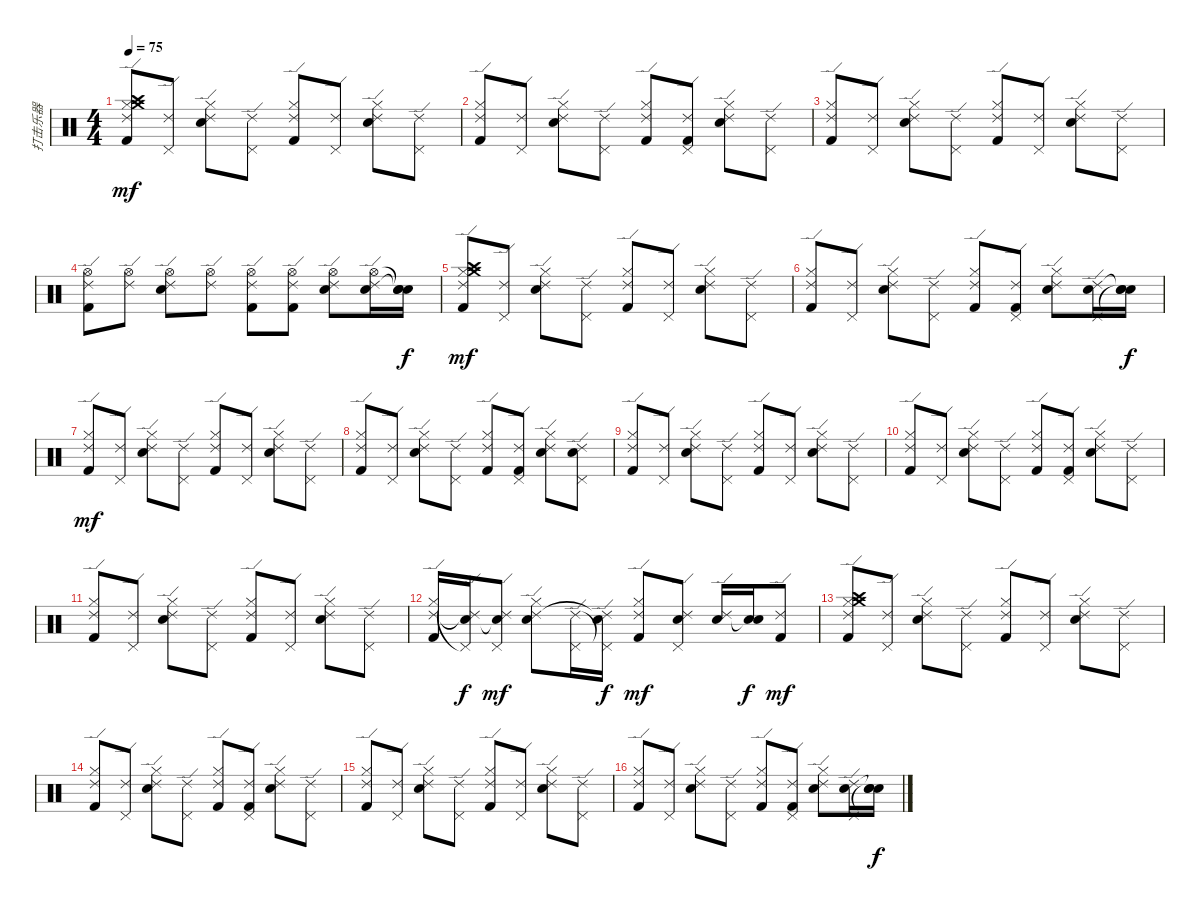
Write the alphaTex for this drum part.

\track ("打击乐器" "打击乐器") {instrument percussion}
\staff {score}
\articulation defaults
\ts (4 4)
\tempo 75
\clef neutral
\ks c
("Kick (hit) 2" "Hi-Hat (closed)" "Crash medium (hit)" "Crash high (hit)" "Ride (edge) 2").8{dy mf} ("Pedal Hi-Hat (hit)" "Ride (edge) 2").8 ("Electric Snare (hit)" "Hi-Hat (closed)" "Ride (edge) 2").8 ("Pedal Hi-Hat (hit)" "Ride (edge) 2").8 ("Kick (hit) 2" "Hi-Hat (closed)" "Ride (edge) 2").8 ("Pedal Hi-Hat (hit)" "Ride (edge) 2").8 ("Electric Snare (hit)" "Hi-Hat (closed)" "Ride (edge) 2").8 ("Pedal Hi-Hat (hit)" "Ride (edge) 2").8 |
("Kick (hit) 2" "Hi-Hat (closed)" "Ride (edge) 2").8 ("Pedal Hi-Hat (hit)" "Ride (edge) 2").8 ("Electric Snare (hit)" "Hi-Hat (closed)" "Ride (edge) 2").8 ("Pedal Hi-Hat (hit)" "Ride (edge) 2").8 ("Kick (hit) 2" "Hi-Hat (closed)" "Ride (edge) 2").8 ("Kick (hit) 2" "Pedal Hi-Hat (hit)" "Ride (edge) 2").8 ("Electric Snare (hit)" "Hi-Hat (closed)" "Ride (edge) 2").8 ("Pedal Hi-Hat (hit)" "Ride (edge) 2").8 |
("Kick (hit) 2" "Hi-Hat (closed)" "Ride (edge) 2").8 ("Pedal Hi-Hat (hit)" "Ride (edge) 2").8 ("Electric Snare (hit)" "Hi-Hat (closed)" "Ride (edge) 2").8 ("Pedal Hi-Hat (hit)" "Ride (edge) 2").8 ("Kick (hit) 2" "Hi-Hat (closed)" "Ride (edge) 2").8 ("Pedal Hi-Hat (hit)" "Ride (edge) 2").8 ("Electric Snare (hit)" "Hi-Hat (closed)" "Ride (edge) 2").8 ("Pedal Hi-Hat (hit)" "Ride (edge) 2").8 |
("Kick (hit) 2" "Hi-Hat (open)" "Ride (edge) 2").8 ("Hi-Hat (open)" "Ride (edge) 2").8 ("Electric Snare (hit)" "Hi-Hat (open)" "Ride (edge) 2").8 ("Hi-Hat (open)" "Ride (edge) 2").8 ("Kick (hit) 2" "Hi-Hat (open)" "Ride (edge) 2").8 ("Kick (hit) 2" "Hi-Hat (open)" "Ride (edge) 2").8 ("Electric Snare (hit)" "Hi-Hat (open)" "Ride (edge) 2").8 ("Electric Snare (hit)" "Hi-Hat (open)" "Ride (edge) 2").16 ("Electric Snare (hit)" "Snare (hit)"{t} "Snare (hit)"{t}).16{dy f} |
("Kick (hit) 2" "Hi-Hat (closed)" "Crash medium (hit)" "Crash high (hit)" "Ride (edge) 2").8{dy mf} ("Pedal Hi-Hat (hit)" "Ride (edge) 2").8 ("Electric Snare (hit)" "Hi-Hat (closed)" "Ride (edge) 2").8 ("Pedal Hi-Hat (hit)" "Ride (edge) 2").8 ("Kick (hit) 2" "Hi-Hat (closed)" "Ride (edge) 2").8 ("Pedal Hi-Hat (hit)" "Ride (edge) 2").8 ("Electric Snare (hit)" "Hi-Hat (closed)" "Ride (edge) 2").8 ("Pedal Hi-Hat (hit)" "Ride (edge) 2").8 |
("Kick (hit) 2" "Hi-Hat (closed)" "Ride (edge) 2").8 ("Pedal Hi-Hat (hit)" "Ride (edge) 2").8 ("Electric Snare (hit)" "Hi-Hat (closed)" "Ride (edge) 2").8 ("Pedal Hi-Hat (hit)" "Ride (edge) 2").8 ("Kick (hit) 2" "Hi-Hat (closed)" "Ride (edge) 2").8 ("Kick (hit) 2" "Pedal Hi-Hat (hit)" "Ride (edge) 2").8 ("Electric Snare (hit)" "Hi-Hat (closed)" "Ride (edge) 2").8 ("Electric Snare (hit)" "Pedal Hi-Hat (hit)" "Ride (edge) 2").16 ("Electric Snare (hit)" "Snare (hit)"{t} "Snare (hit)"{t}).16{dy f} |
("Kick (hit) 2" "Hi-Hat (closed)" "Ride (edge) 2").8{dy mf} ("Pedal Hi-Hat (hit)" "Ride (edge) 2").8 ("Electric Snare (hit)" "Hi-Hat (closed)" "Ride (edge) 2").8 ("Pedal Hi-Hat (hit)" "Ride (edge) 2").8 ("Kick (hit) 2" "Hi-Hat (closed)" "Ride (edge) 2").8 ("Pedal Hi-Hat (hit)" "Ride (edge) 2").8 ("Electric Snare (hit)" "Hi-Hat (closed)" "Ride (edge) 2").8 ("Pedal Hi-Hat (hit)" "Ride (edge) 2").8 |
("Kick (hit) 2" "Hi-Hat (closed)" "Ride (edge) 2").8 ("Pedal Hi-Hat (hit)" "Ride (edge) 2").8 ("Electric Snare (hit)" "Hi-Hat (closed)" "Ride (edge) 2").8 ("Pedal Hi-Hat (hit)" "Ride (edge) 2").8 ("Kick (hit) 2" "Hi-Hat (closed)" "Ride (edge) 2").8 ("Kick (hit) 2" "Pedal Hi-Hat (hit)" "Ride (edge) 2").8 ("Electric Snare (hit)" "Hi-Hat (closed)" "Ride (edge) 2").8 ("Electric Snare (hit)" "Pedal Hi-Hat (hit)" "Ride (edge) 2").8 |
("Kick (hit) 2" "Hi-Hat (closed)" "Ride (edge) 2").8 ("Pedal Hi-Hat (hit)" "Ride (edge) 2").8 ("Electric Snare (hit)" "Hi-Hat (closed)" "Ride (edge) 2").8 ("Pedal Hi-Hat (hit)" "Ride (edge) 2").8 ("Kick (hit) 2" "Hi-Hat (closed)" "Ride (edge) 2").8 ("Pedal Hi-Hat (hit)" "Ride (edge) 2").8 ("Electric Snare (hit)" "Hi-Hat (closed)" "Ride (edge) 2").8 ("Pedal Hi-Hat (hit)" "Ride (edge) 2").8 |
("Kick (hit) 2" "Hi-Hat (closed)" "Ride (edge) 2").8 ("Pedal Hi-Hat (hit)" "Ride (edge) 2").8 ("Electric Snare (hit)" "Hi-Hat (closed)" "Ride (edge) 2").8 ("Pedal Hi-Hat (hit)" "Ride (edge) 2").8 ("Kick (hit) 2" "Hi-Hat (closed)" "Ride (edge) 2").8 ("Kick (hit) 2" "Pedal Hi-Hat (hit)" "Ride (edge) 2").8 ("Electric Snare (hit)" "Hi-Hat (closed)" "Ride (edge) 2").8 ("Pedal Hi-Hat (hit)" "Ride (edge) 2").8 |
("Kick (hit) 2" "Hi-Hat (closed)" "Ride (edge) 2").8 ("Pedal Hi-Hat (hit)" "Ride (edge) 2").8 ("Electric Snare (hit)" "Hi-Hat (closed)" "Ride (edge) 2").8 ("Pedal Hi-Hat (hit)" "Ride (edge) 2").8 ("Kick (hit) 2" "Hi-Hat (closed)" "Ride (edge) 2").8 ("Pedal Hi-Hat (hit)" "Ride (edge) 2").8 ("Electric Snare (hit)" "Hi-Hat (closed)" "Ride (edge) 2").8 ("Pedal Hi-Hat (hit)" "Ride (edge) 2").8 |
("Kick (hit) 2" "Hi-Hat (closed)" "Ride (edge) 2").16 ("Electric Snare (hit)" "Pedal Hi-Hat (hit)"{t} "Ride (edge) 2"{t}).16{dy f} ("Electric Snare (hit)"{t} "Pedal Hi-Hat (hit)" "Ride (edge) 2").8{dy mf} ("Electric Snare (hit)" "Hi-Hat (closed)" "Ride (edge) 2").8 ("Pedal Hi-Hat (hit)" "Ride (edge) 2").16 ("Electric Snare (hit)" "Pedal Hi-Hat (hit)"{t} "Ride (edge) 2"{t}).16{dy f} ("Kick (hit) 2" "Hi-Hat (closed)" "Ride (edge) 2").8{dy mf} ("Electric Snare (hit)" "Pedal Hi-Hat (hit)" "Ride (edge) 2").8 ("Electric Snare (hit)" "Ride (edge) 2").16 ("Electric Snare (hit)" "Snare (hit)"{t}).16{dy f} ("Kick (hit) 2" "Ride (edge) 2").8{dy mf} |
("Kick (hit) 2" "Hi-Hat (closed)" "Crash medium (hit)" "Crash high (hit)" "Ride (edge) 2").8 ("Pedal Hi-Hat (hit)" "Ride (edge) 2").8 ("Electric Snare (hit)" "Hi-Hat (closed)" "Ride (edge) 2").8 ("Pedal Hi-Hat (hit)" "Ride (edge) 2").8 ("Kick (hit) 2" "Hi-Hat (closed)" "Ride (edge) 2").8 ("Pedal Hi-Hat (hit)" "Ride (edge) 2").8 ("Electric Snare (hit)" "Hi-Hat (closed)" "Ride (edge) 2").8 ("Pedal Hi-Hat (hit)" "Ride (edge) 2").8 |
("Kick (hit) 2" "Hi-Hat (closed)" "Ride (edge) 2").8 ("Pedal Hi-Hat (hit)" "Ride (edge) 2").8 ("Electric Snare (hit)" "Hi-Hat (closed)" "Ride (edge) 2").8 ("Pedal Hi-Hat (hit)" "Ride (edge) 2").8 ("Kick (hit) 2" "Hi-Hat (closed)" "Ride (edge) 2").8 ("Kick (hit) 2" "Pedal Hi-Hat (hit)" "Ride (edge) 2").8 ("Electric Snare (hit)" "Hi-Hat (closed)" "Ride (edge) 2").8 ("Pedal Hi-Hat (hit)" "Ride (edge) 2").8 |
("Kick (hit) 2" "Hi-Hat (closed)" "Ride (edge) 2").8 ("Pedal Hi-Hat (hit)" "Ride (edge) 2").8 ("Electric Snare (hit)" "Hi-Hat (closed)" "Ride (edge) 2").8 ("Pedal Hi-Hat (hit)" "Ride (edge) 2").8 ("Kick (hit) 2" "Hi-Hat (closed)" "Ride (edge) 2").8 ("Pedal Hi-Hat (hit)" "Ride (edge) 2").8 ("Electric Snare (hit)" "Hi-Hat (closed)" "Ride (edge) 2").8 ("Pedal Hi-Hat (hit)" "Ride (edge) 2").8 |
("Kick (hit) 2" "Hi-Hat (closed)" "Ride (edge) 2").8 ("Pedal Hi-Hat (hit)" "Ride (edge) 2").8 ("Electric Snare (hit)" "Hi-Hat (closed)" "Ride (edge) 2").8 ("Pedal Hi-Hat (hit)" "Ride (edge) 2").8 ("Kick (hit) 2" "Hi-Hat (closed)" "Ride (edge) 2").8 ("Kick (hit) 2" "Pedal Hi-Hat (hit)" "Ride (edge) 2").8 ("Electric Snare (hit)" "Hi-Hat (closed)" "Ride (edge) 2").8 ("Electric Snare (hit)" "Pedal Hi-Hat (hit)" "Ride (edge) 2").16 ("Electric Snare (hit)" "Snare (hit)"{t} "Snare (hit)"{t}).16{dy f}
